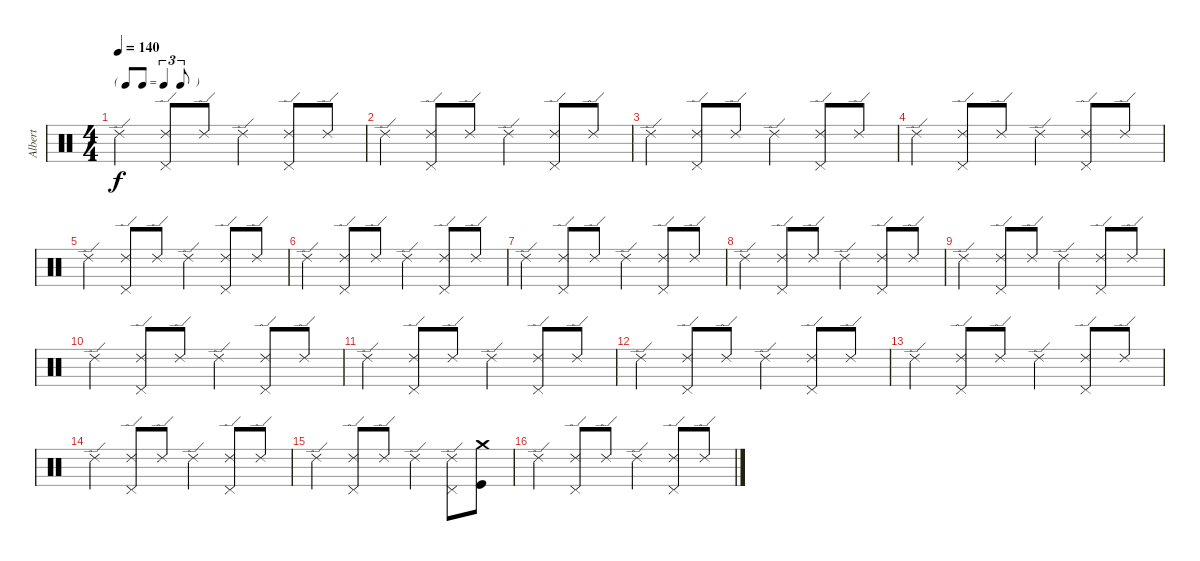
\track ("Albert" "Albert") {instrument percussion}
\staff {score}
\articulation defaults
\ts (4 4)
\tf triplet8th
\tempo 140
\clef neutral
\ks c "Ride (edge) 2".4{dy f}
("Ride (edge) 2" "Pedal Hi-Hat (hit)").8 "Ride (edge) 2".8 "Ride (edge) 2".4 ("Ride (edge) 2" "Pedal Hi-Hat (hit)").8 "Ride (edge) 2".8 |
"Ride (edge) 2".4 ("Ride (edge) 2" "Pedal Hi-Hat (hit)").8 "Ride (edge) 2".8 "Ride (edge) 2".4 ("Ride (edge) 2" "Pedal Hi-Hat (hit)").8 "Ride (edge) 2".8 |
"Ride (edge) 2".4 ("Ride (edge) 2" "Pedal Hi-Hat (hit)").8 "Ride (edge) 2".8 "Ride (edge) 2".4 ("Ride (edge) 2" "Pedal Hi-Hat (hit)").8 "Ride (edge) 2".8 |
"Ride (edge) 2".4 ("Ride (edge) 2" "Pedal Hi-Hat (hit)").8 "Ride (edge) 2".8 "Ride (edge) 2".4 ("Ride (edge) 2" "Pedal Hi-Hat (hit)").8 "Ride (edge) 2".8 |
"Ride (edge) 2".4 ("Ride (edge) 2" "Pedal Hi-Hat (hit)").8 "Ride (edge) 2".8 "Ride (edge) 2".4 ("Ride (edge) 2" "Pedal Hi-Hat (hit)").8 "Ride (edge) 2".8 |
"Ride (edge) 2".4 ("Ride (edge) 2" "Pedal Hi-Hat (hit)").8 "Ride (edge) 2".8 "Ride (edge) 2".4 ("Ride (edge) 2" "Pedal Hi-Hat (hit)").8 "Ride (edge) 2".8 |
"Ride (edge) 2".4 ("Ride (edge) 2" "Pedal Hi-Hat (hit)").8 "Ride (edge) 2".8 "Ride (edge) 2".4 ("Ride (edge) 2" "Pedal Hi-Hat (hit)").8 "Ride (edge) 2".8 |
"Ride (edge) 2".4 ("Ride (edge) 2" "Pedal Hi-Hat (hit)").8 "Ride (edge) 2".8 "Ride (edge) 2".4 ("Ride (edge) 2" "Pedal Hi-Hat (hit)").8 "Ride (edge) 2".8 |
"Ride (edge) 2".4 ("Ride (edge) 2" "Pedal Hi-Hat (hit)").8 "Ride (edge) 2".8 "Ride (edge) 2".4 ("Ride (edge) 2" "Pedal Hi-Hat (hit)").8 "Ride (edge) 2".8 |
"Ride (edge) 2".4 ("Ride (edge) 2" "Pedal Hi-Hat (hit)").8 "Ride (edge) 2".8 "Ride (edge) 2".4 ("Ride (edge) 2" "Pedal Hi-Hat (hit)").8 "Ride (edge) 2".8 |
"Ride (edge) 2".4 ("Ride (edge) 2" "Pedal Hi-Hat (hit)").8 "Ride (edge) 2".8 "Ride (edge) 2".4 ("Ride (edge) 2" "Pedal Hi-Hat (hit)").8 "Ride (edge) 2".8 |
"Ride (edge) 2".4 ("Ride (edge) 2" "Pedal Hi-Hat (hit)").8 "Ride (edge) 2".8 "Ride (edge) 2".4 ("Ride (edge) 2" "Pedal Hi-Hat (hit)").8 "Ride (edge) 2".8 |
"Ride (edge) 2".4 ("Ride (edge) 2" "Pedal Hi-Hat (hit)").8 "Ride (edge) 2".8 "Ride (edge) 2".4 ("Ride (edge) 2" "Pedal Hi-Hat (hit)").8 "Ride (edge) 2".8 |
"Ride (edge) 2".4 ("Ride (edge) 2" "Pedal Hi-Hat (hit)").8 "Ride (edge) 2".8 "Ride (edge) 2".4 ("Ride (edge) 2" "Pedal Hi-Hat (hit)").8 "Ride (edge) 2".8 |
"Ride (edge) 2".4 ("Ride (edge) 2" "Pedal Hi-Hat (hit)").8 "Ride (edge) 2".8 "Ride (edge) 2".4 ("Ride (edge) 2" "Pedal Hi-Hat (hit)").8 ("Crash medium (hit)" "Kick (hit)").8 |
"Ride (edge) 2".4 ("Ride (edge) 2" "Pedal Hi-Hat (hit)").8 "Ride (edge) 2".8 "Ride (edge) 2".4 ("Ride (edge) 2" "Pedal Hi-Hat (hit)").8 "Ride (edge) 2".8
